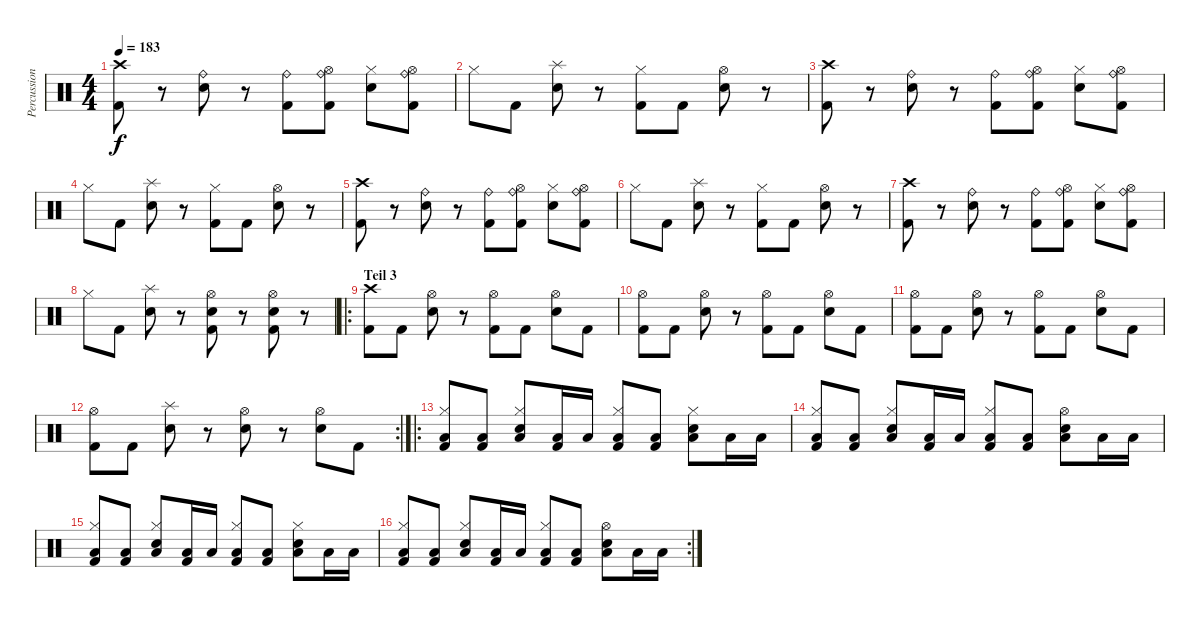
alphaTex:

\track ("Percussion" "Percussion") {instrument percussion}
\staff {score}
\articulation defaults
\ts (4 4)
\section ("" "")
\tempo 183
\clef neutral
\ks c
("Crash high (hit)" "Kick (hit) 2").8{dy f} r.8 ("Ride (bell)" "Electric Snare (hit)").8 r.8 ("Ride (bell)" "Kick (hit) 2").8 ("Ride (bell)" "Hi-Hat (open)" "Kick (hit) 2").8 ("Hi-Hat (closed)" "Electric Snare (hit)").8 ("Ride (bell)" "Hi-Hat (open)" "Kick (hit) 2").8 |
"Hi-Hat (closed)".8 "Kick (hit) 2".8 ("Splash (hit)" "Electric Snare (hit)").8 r.8 ("Hi-Hat (closed)" "Kick (hit) 2").8 "Kick (hit) 2".8 ("Hi-Hat (open)" "Electric Snare (hit)").8 r.8 |
("Crash high (hit)" "Kick (hit) 2").8 r.8 ("Ride (bell)" "Electric Snare (hit)").8 r.8 ("Ride (bell)" "Kick (hit) 2").8 ("Ride (bell)" "Hi-Hat (open)" "Kick (hit) 2").8 ("Hi-Hat (closed)" "Electric Snare (hit)").8 ("Ride (bell)" "Hi-Hat (open)" "Kick (hit) 2").8 |
"Hi-Hat (closed)".8 "Kick (hit) 2".8 ("Splash (hit)" "Electric Snare (hit)").8 r.8 ("Hi-Hat (closed)" "Kick (hit) 2").8 "Kick (hit) 2".8 ("Hi-Hat (open)" "Electric Snare (hit)").8 r.8 |
("Crash high (hit)" "Kick (hit) 2").8 r.8 ("Ride (bell)" "Electric Snare (hit)").8 r.8 ("Ride (bell)" "Kick (hit) 2").8 ("Ride (bell)" "Hi-Hat (open)" "Kick (hit) 2").8 ("Hi-Hat (closed)" "Electric Snare (hit)").8 ("Ride (bell)" "Hi-Hat (open)" "Kick (hit) 2").8 |
"Hi-Hat (closed)".8 "Kick (hit) 2".8 ("Splash (hit)" "Electric Snare (hit)").8 r.8 ("Hi-Hat (closed)" "Kick (hit) 2").8 "Kick (hit) 2".8 ("Hi-Hat (open)" "Electric Snare (hit)").8 r.8 |
("Crash high (hit)" "Kick (hit) 2").8 r.8 ("Ride (bell)" "Electric Snare (hit)").8 r.8 ("Ride (bell)" "Kick (hit) 2").8 ("Ride (bell)" "Hi-Hat (open)" "Kick (hit) 2").8 ("Hi-Hat (closed)" "Electric Snare (hit)").8 ("Ride (bell)" "Hi-Hat (open)" "Kick (hit) 2").8 |
"Hi-Hat (closed)".8 "Kick (hit) 2".8 ("Splash (hit)" "Electric Snare (hit)").8 r.8 ("Hi-Hat (open)" "Electric Snare (hit)" "Kick (hit) 2").8 r.8 ("Hi-Hat (open)" "Electric Snare (hit)" "Kick (hit) 2").8 r.8 |
\ro
\section ("" "Teil 3")
("Crash high (hit)" "Kick (hit) 2").8 "Kick (hit) 2".8 ("Hi-Hat (open)" "Electric Snare (hit)").8 r.8 ("Hi-Hat (open)" "Kick (hit) 2").8 "Kick (hit) 2".8 ("Hi-Hat (open)" "Electric Snare (hit)").8 "Kick (hit) 2".8 |
("Hi-Hat (open)" "Kick (hit) 2").8 "Kick (hit) 2".8 ("Hi-Hat (open)" "Electric Snare (hit)").8 r.8 ("Hi-Hat (open)" "Kick (hit) 2").8 "Kick (hit) 2".8 ("Hi-Hat (open)" "Electric Snare (hit)").8 "Kick (hit) 2".8 |
("Hi-Hat (open)" "Kick (hit) 2").8 "Kick (hit) 2".8 ("Hi-Hat (open)" "Electric Snare (hit)").8 r.8 ("Hi-Hat (open)" "Kick (hit) 2").8 "Kick (hit) 2".8 ("Hi-Hat (open)" "Electric Snare (hit)").8 "Kick (hit) 2".8 |
\rc 2
("Hi-Hat (open)" "Kick (hit) 2").8 "Kick (hit) 2".8 ("Splash (hit)" "Electric Snare (hit)").8 r.8 ("Hi-Hat (open)" "Electric Snare (hit)").8 r.8 ("Hi-Hat (open)" "Electric Snare (hit)").8 "Kick (hit) 2".8 |
\ro
\section ("" "")
("Hi-Hat (closed)" "Low Floor Tom (hit)" "Kick (hit) 2").8 ("Low Floor Tom (hit)" "Kick (hit) 2").8 ("Hi-Hat (closed)" "Low Floor Tom (hit)" "Electric Snare (hit)").8 ("Low Floor Tom (hit)" "Kick (hit) 2").16 "Low Floor Tom (hit)".16 ("Hi-Hat (closed)" "Low Floor Tom (hit)" "Kick (hit) 2").8 ("Low Floor Tom (hit)" "Kick (hit) 2").8 ("Hi-Hat (closed)" "Low Floor Tom (hit)" "Electric Snare (hit)").8 "Low Floor Tom (hit)".16 "Low Floor Tom (hit)".16 |
("Hi-Hat (closed)" "Low Floor Tom (hit)" "Kick (hit) 2").8 ("Low Floor Tom (hit)" "Kick (hit) 2").8 ("Hi-Hat (closed)" "Low Floor Tom (hit)" "Electric Snare (hit)").8 ("Low Floor Tom (hit)" "Kick (hit) 2").16 "Low Floor Tom (hit)".16 ("Hi-Hat (closed)" "Low Floor Tom (hit)" "Kick (hit) 2").8 ("Low Floor Tom (hit)" "Kick (hit) 2").8 ("Hi-Hat (open)" "Low Floor Tom (hit)" "Electric Snare (hit)").8 "Low Floor Tom (hit)".16 "Low Floor Tom (hit)".16 |
("Hi-Hat (closed)" "Low Floor Tom (hit)" "Kick (hit) 2").8 ("Low Floor Tom (hit)" "Kick (hit) 2").8 ("Hi-Hat (closed)" "Low Floor Tom (hit)" "Electric Snare (hit)").8 ("Low Floor Tom (hit)" "Kick (hit) 2").16 "Low Floor Tom (hit)".16 ("Hi-Hat (closed)" "Low Floor Tom (hit)" "Kick (hit) 2").8 ("Low Floor Tom (hit)" "Kick (hit) 2").8 ("Hi-Hat (closed)" "Low Floor Tom (hit)" "Electric Snare (hit)").8 "Low Floor Tom (hit)".16 "Low Floor Tom (hit)".16 |
\rc 2
("Hi-Hat (closed)" "Low Floor Tom (hit)" "Kick (hit) 2").8 ("Low Floor Tom (hit)" "Kick (hit) 2").8 ("Hi-Hat (closed)" "Low Floor Tom (hit)" "Electric Snare (hit)").8 ("Low Floor Tom (hit)" "Kick (hit) 2").16 "Low Floor Tom (hit)".16 ("Hi-Hat (closed)" "Low Floor Tom (hit)" "Kick (hit) 2").8 ("Low Floor Tom (hit)" "Kick (hit) 2").8 ("Hi-Hat (open)" "Low Floor Tom (hit)" "Electric Snare (hit)").8 "Low Floor Tom (hit)".16 "Low Floor Tom (hit)".16
